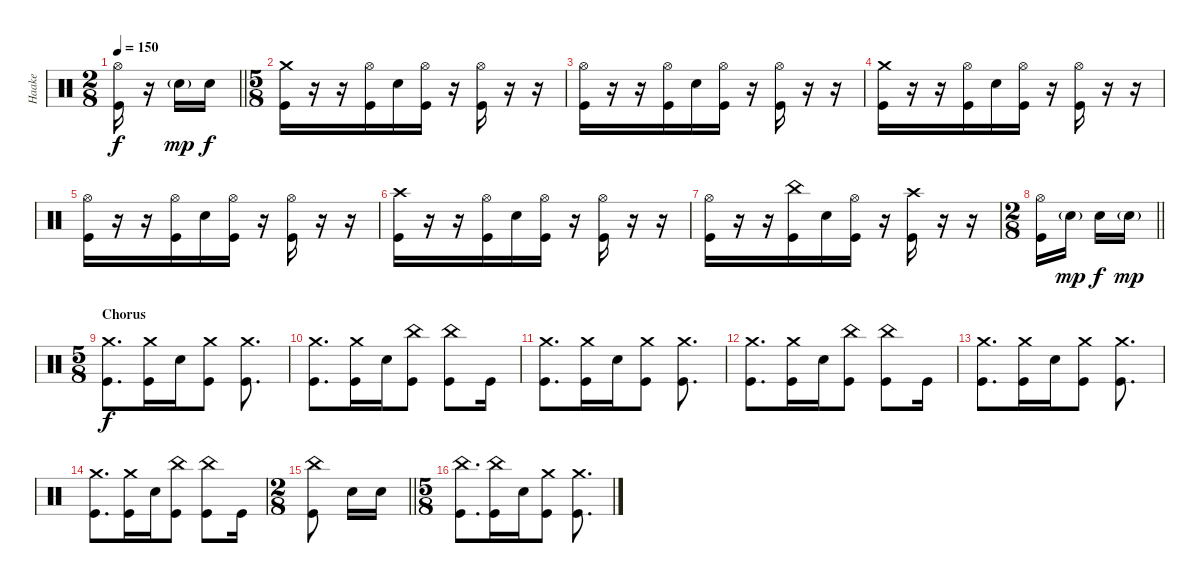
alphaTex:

\track ("Haake" "Haake") {instrument percussion}
\staff {score}
\articulation defaults
\ts (2 8)
\tempo 150
\clef neutral
\barLineRight lightlight
\ks c
("Hi-Hat (open)" "Kick (hit)").16{dy f} r.16 "Snare (hit) 2"{g}.16{dy mp} "Snare (hit) 2".16{dy f} |
\ts (5 8)
("Crash medium (hit)" "Kick (hit)").16 r.16 r.16 ("Hi-Hat (open)" "Kick (hit)").16 "Snare (hit) 2".16 ("Hi-Hat (open)" "Kick (hit)").16 r.16 ("Hi-Hat (open)" "Kick (hit)").16 r.16 r.16 |
("Hi-Hat (open)" "Kick (hit)").16 r.16 r.16 ("Hi-Hat (open)" "Kick (hit)").16 "Snare (hit) 2".16 ("Hi-Hat (open)" "Kick (hit)").16 r.16 ("Hi-Hat (open)" "Kick (hit)").16 r.16 r.16 |
("Crash medium (hit)" "Kick (hit)").16 r.16 r.16 ("Hi-Hat (open)" "Kick (hit)").16 "Snare (hit) 2".16 ("Hi-Hat (open)" "Kick (hit)").16 r.16 ("Hi-Hat (open)" "Kick (hit)").16 r.16 r.16 |
("Hi-Hat (open)" "Kick (hit)").16 r.16 r.16 ("Hi-Hat (open)" "Kick (hit)").16 "Snare (hit) 2".16 ("Hi-Hat (open)" "Kick (hit)").16 r.16 ("Hi-Hat (open)" "Kick (hit)").16 r.16 r.16 |
("Crash high (hit)" "Kick (hit)").16 r.16 r.16 ("Hi-Hat (open)" "Kick (hit)").16 "Snare (hit) 2".16 ("Hi-Hat (open)" "Kick (hit)").16 r.16 ("Hi-Hat (open)" "Kick (hit)").16 r.16 r.16 |
("Hi-Hat (open)" "Kick (hit)").16 r.16 r.16 ("China (hit)" "Kick (hit)").16 "Snare (hit) 2".16 ("Hi-Hat (open)" "Kick (hit)").16 r.16 ("Crash high (hit)" "Kick (hit)").16 r.16 r.16 |
\ts (2 8)
\barLineRight lightlight
("Hi-Hat (open)" "Kick (hit)").16 "Snare (hit) 2"{g}.16{dy mp} "Snare (hit) 2".16{dy f} "Snare (hit) 2"{g}.16{dy mp} |
\ts (5 8)
\section ("" "Chorus")
("Crash medium (hit)" "Kick (hit)").8{d dy f} ("Crash medium (hit)" "Kick (hit)").16 "Snare (hit) 2".16 ("Crash medium (hit)" "Kick (hit)").8 ("Crash medium (hit)" "Kick (hit)").8{d} |
("Crash medium (hit)" "Kick (hit)").8{d} ("Crash medium (hit)" "Kick (hit)").16 "Snare (hit) 2".16 ("China (hit)" "Kick (hit)").8 ("China (hit)" "Kick (hit)").8 "Kick (hit)".16 |
("Crash medium (hit)" "Kick (hit)").8{d} ("Crash medium (hit)" "Kick (hit)").16 "Snare (hit) 2".16 ("Crash medium (hit)" "Kick (hit)").8 ("Crash medium (hit)" "Kick (hit)").8{d} |
("Crash medium (hit)" "Kick (hit)").8{d} ("Crash medium (hit)" "Kick (hit)").16 "Snare (hit) 2".16 ("China (hit)" "Kick (hit)").8 ("China (hit)" "Kick (hit)").8 "Kick (hit)".16 |
("Crash medium (hit)" "Kick (hit)").8{d} ("Crash medium (hit)" "Kick (hit)").16 "Snare (hit) 2".16 ("Crash medium (hit)" "Kick (hit)").8 ("Crash medium (hit)" "Kick (hit)").8{d} |
("Crash medium (hit)" "Kick (hit)").8{d} ("Crash medium (hit)" "Kick (hit)").16 "Snare (hit) 2".16 ("China (hit)" "Kick (hit)").8 ("China (hit)" "Kick (hit)").8 "Kick (hit)".16 |
\ts (2 8)
\barLineRight lightlight
("China (hit)" "Kick (hit)").8 "Snare (hit) 2".16 "Snare (hit) 2".16 |
\ts (5 8)
("China (hit)" "Kick (hit)").8{d} ("China (hit)" "Kick (hit)").16 "Snare (hit) 2".16 ("Crash medium (hit)" "Kick (hit)").8 ("Crash medium (hit)" "Kick (hit)").8{d}
